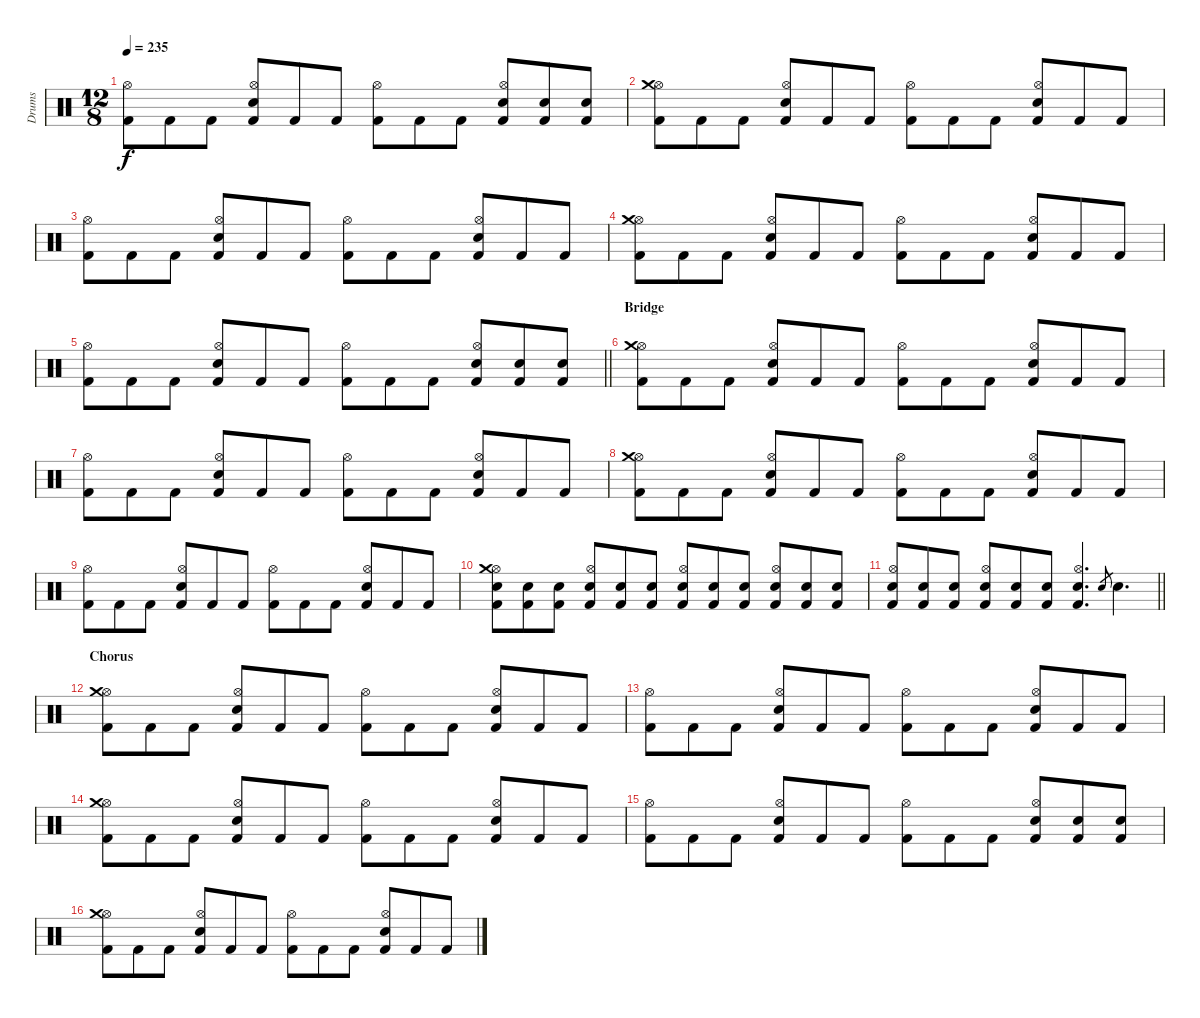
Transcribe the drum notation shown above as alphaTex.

\track ("Drums" "Drums") {instrument percussion}
\staff {score}
\articulation defaults
\ts (12 8)
\tempo 235
\clef neutral
\ks c
("Kick (hit) 2" "Hi-Hat (open)").8{dy f} "Kick (hit) 2".8 "Kick (hit) 2".8 ("Hi-Hat (open)" "Kick (hit) 2" "Snare (hit) 2").8 "Kick (hit) 2".8 "Kick (hit) 2".8 ("Kick (hit) 2" "Hi-Hat (open)").8 "Kick (hit) 2".8 "Kick (hit) 2".8 ("Kick (hit) 2" "Hi-Hat (open)" "Snare (hit) 2").8 ("Kick (hit) 2" "Snare (hit) 2").8 ("Kick (hit) 2" "Snare (hit) 2").8 |
("Kick (hit) 2" "Hi-Hat (open)" "Crash medium (hit)").8 "Kick (hit) 2".8 "Kick (hit) 2".8 ("Snare (hit) 2" "Hi-Hat (open)" "Kick (hit) 2").8 "Kick (hit) 2".8 "Kick (hit) 2".8 ("Hi-Hat (open)" "Kick (hit) 2").8 "Kick (hit) 2".8 "Kick (hit) 2".8 ("Kick (hit) 2" "Snare (hit) 2" "Hi-Hat (open)").8 "Kick (hit) 2".8 "Kick (hit) 2".8 |
("Hi-Hat (open)" "Kick (hit) 2").8 "Kick (hit) 2".8 "Kick (hit) 2".8 ("Snare (hit) 2" "Kick (hit) 2" "Hi-Hat (open)").8 "Kick (hit) 2".8 "Kick (hit) 2".8 ("Hi-Hat (open)" "Kick (hit) 2").8 "Kick (hit) 2".8 "Kick (hit) 2".8 ("Hi-Hat (open)" "Kick (hit) 2" "Snare (hit) 2").8 "Kick (hit) 2".8 "Kick (hit) 2".8 |
("Hi-Hat (open)" "Kick (hit) 2" "Crash medium (hit)").8 "Kick (hit) 2".8 "Kick (hit) 2".8 ("Kick (hit) 2" "Snare (hit) 2" "Hi-Hat (open)").8 "Kick (hit) 2".8 "Kick (hit) 2".8 ("Kick (hit) 2" "Hi-Hat (open)").8 "Kick (hit) 2".8 "Kick (hit) 2".8 ("Snare (hit) 2" "Kick (hit) 2" "Hi-Hat (open)").8 "Kick (hit) 2".8 "Kick (hit) 2".8 |
\barLineRight lightlight
("Kick (hit) 2" "Hi-Hat (open)").8 "Kick (hit) 2".8 "Kick (hit) 2".8 ("Hi-Hat (open)" "Kick (hit) 2" "Snare (hit) 2").8 "Kick (hit) 2".8 "Kick (hit) 2".8 ("Kick (hit) 2" "Hi-Hat (open)").8 "Kick (hit) 2".8 "Kick (hit) 2".8 ("Kick (hit) 2" "Hi-Hat (open)" "Snare (hit) 2").8 ("Kick (hit) 2" "Snare (hit) 2").8 ("Kick (hit) 2" "Snare (hit) 2").8 |
\section ("" "Bridge")
("Kick (hit) 2" "Hi-Hat (open)" "Crash medium (hit)").8 "Kick (hit) 2".8 "Kick (hit) 2".8 ("Snare (hit) 2" "Hi-Hat (open)" "Kick (hit) 2").8 "Kick (hit) 2".8 "Kick (hit) 2".8 ("Hi-Hat (open)" "Kick (hit) 2").8 "Kick (hit) 2".8 "Kick (hit) 2".8 ("Kick (hit) 2" "Snare (hit) 2" "Hi-Hat (open)").8 "Kick (hit) 2".8 "Kick (hit) 2".8 |
("Hi-Hat (open)" "Kick (hit) 2").8 "Kick (hit) 2".8 "Kick (hit) 2".8 ("Snare (hit) 2" "Kick (hit) 2" "Hi-Hat (open)").8 "Kick (hit) 2".8 "Kick (hit) 2".8 ("Hi-Hat (open)" "Kick (hit) 2").8 "Kick (hit) 2".8 "Kick (hit) 2".8 ("Hi-Hat (open)" "Kick (hit) 2" "Snare (hit) 2").8 "Kick (hit) 2".8 "Kick (hit) 2".8 |
("Hi-Hat (open)" "Kick (hit) 2" "Crash medium (hit)").8 "Kick (hit) 2".8 "Kick (hit) 2".8 ("Kick (hit) 2" "Snare (hit) 2" "Hi-Hat (open)").8 "Kick (hit) 2".8 "Kick (hit) 2".8 ("Kick (hit) 2" "Hi-Hat (open)").8 "Kick (hit) 2".8 "Kick (hit) 2".8 ("Snare (hit) 2" "Kick (hit) 2" "Hi-Hat (open)").8 "Kick (hit) 2".8 "Kick (hit) 2".8 |
("Kick (hit) 2" "Hi-Hat (open)").8 "Kick (hit) 2".8 "Kick (hit) 2".8 ("Hi-Hat (open)" "Kick (hit) 2" "Snare (hit) 2").8 "Kick (hit) 2".8 "Kick (hit) 2".8 ("Kick (hit) 2" "Hi-Hat (open)").8 "Kick (hit) 2".8 "Kick (hit) 2".8 ("Kick (hit) 2" "Hi-Hat (open)" "Snare (hit) 2").8 "Kick (hit) 2".8 "Kick (hit) 2".8 |
("Kick (hit) 2" "Hi-Hat (open)" "Crash medium (hit)" "Snare (hit) 2").8 ("Kick (hit) 2" "Snare (hit) 2").8 ("Kick (hit) 2" "Snare (hit) 2").8 ("Hi-Hat (open)" "Kick (hit) 2" "Snare (hit) 2").8 ("Kick (hit) 2" "Snare (hit) 2").8 ("Kick (hit) 2" "Snare (hit) 2").8 ("Hi-Hat (open)" "Kick (hit) 2" "Snare (hit) 2").8 ("Kick (hit) 2" "Snare (hit) 2").8 ("Kick (hit) 2" "Snare (hit) 2").8 ("Kick (hit) 2" "Hi-Hat (open)" "Snare (hit) 2").8 ("Kick (hit) 2" "Snare (hit) 2").8 ("Kick (hit) 2" "Snare (hit) 2").8 |
\barLineRight lightlight
("Hi-Hat (open)" "Kick (hit) 2" "Snare (hit) 2").8 ("Kick (hit) 2" "Snare (hit) 2").8 ("Kick (hit) 2" "Snare (hit) 2").8 ("Kick (hit) 2" "Hi-Hat (open)" "Snare (hit) 2").8 ("Kick (hit) 2" "Snare (hit) 2").8 ("Kick (hit) 2" "Snare (hit) 2").8 ("Hi-Hat (open)" "Kick (hit) 2" "Snare (hit) 2").4{d} "Snare (hit) 2".8{gr} "Snare (hit) 2".4{d} |
\section ("" "Chorus")
("Kick (hit) 2" "Hi-Hat (open)" "Crash medium (hit)").8 "Kick (hit) 2".8 "Kick (hit) 2".8 ("Snare (hit) 2" "Hi-Hat (open)" "Kick (hit) 2").8 "Kick (hit) 2".8 "Kick (hit) 2".8 ("Hi-Hat (open)" "Kick (hit) 2").8 "Kick (hit) 2".8 "Kick (hit) 2".8 ("Kick (hit) 2" "Snare (hit) 2" "Hi-Hat (open)").8 "Kick (hit) 2".8 "Kick (hit) 2".8 |
("Hi-Hat (open)" "Kick (hit) 2").8 "Kick (hit) 2".8 "Kick (hit) 2".8 ("Snare (hit) 2" "Kick (hit) 2" "Hi-Hat (open)").8 "Kick (hit) 2".8 "Kick (hit) 2".8 ("Hi-Hat (open)" "Kick (hit) 2").8 "Kick (hit) 2".8 "Kick (hit) 2".8 ("Hi-Hat (open)" "Kick (hit) 2" "Snare (hit) 2").8 "Kick (hit) 2".8 "Kick (hit) 2".8 |
("Hi-Hat (open)" "Kick (hit) 2" "Crash medium (hit)").8 "Kick (hit) 2".8 "Kick (hit) 2".8 ("Kick (hit) 2" "Snare (hit) 2" "Hi-Hat (open)").8 "Kick (hit) 2".8 "Kick (hit) 2".8 ("Kick (hit) 2" "Hi-Hat (open)").8 "Kick (hit) 2".8 "Kick (hit) 2".8 ("Snare (hit) 2" "Kick (hit) 2" "Hi-Hat (open)").8 "Kick (hit) 2".8 "Kick (hit) 2".8 |
("Kick (hit) 2" "Hi-Hat (open)").8 "Kick (hit) 2".8 "Kick (hit) 2".8 ("Hi-Hat (open)" "Kick (hit) 2" "Snare (hit) 2").8 "Kick (hit) 2".8 "Kick (hit) 2".8 ("Kick (hit) 2" "Hi-Hat (open)").8 "Kick (hit) 2".8 "Kick (hit) 2".8 ("Kick (hit) 2" "Hi-Hat (open)" "Snare (hit) 2").8 ("Kick (hit) 2" "Snare (hit) 2").8 ("Kick (hit) 2" "Snare (hit) 2").8 |
("Kick (hit) 2" "Hi-Hat (open)" "Crash medium (hit)").8 "Kick (hit) 2".8 "Kick (hit) 2".8 ("Snare (hit) 2" "Hi-Hat (open)" "Kick (hit) 2").8 "Kick (hit) 2".8 "Kick (hit) 2".8 ("Hi-Hat (open)" "Kick (hit) 2").8 "Kick (hit) 2".8 "Kick (hit) 2".8 ("Kick (hit) 2" "Snare (hit) 2" "Hi-Hat (open)").8 "Kick (hit) 2".8 "Kick (hit) 2".8
